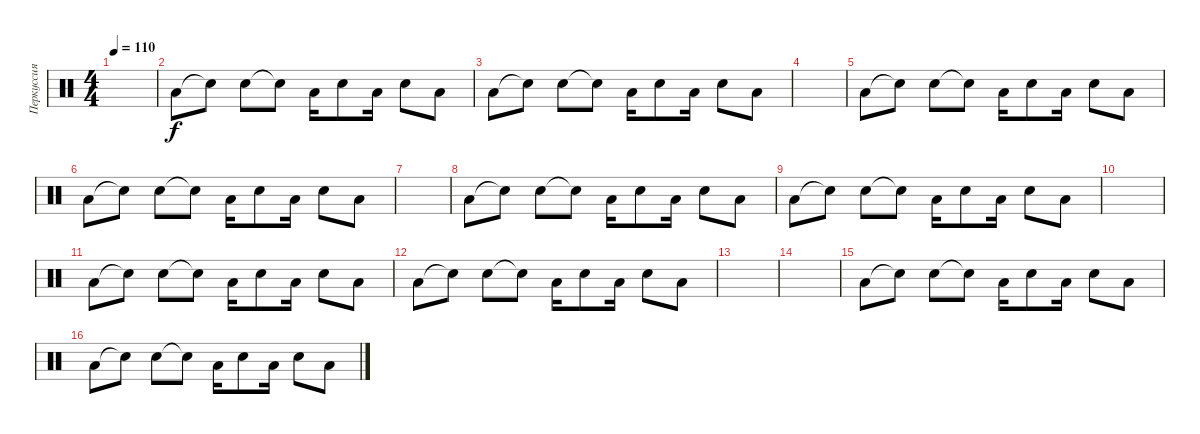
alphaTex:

\track ("Перкуссия" "Перкуссия") {instrument percussion}
\staff {score}
\articulation defaults
\ts (4 4)
\tempo 110
\clef neutral
\ks c
|
"Low Floor Tom (hit)".8 "Snare (hit)"{t}.8 "Electric Snare (hit)".8 "Snare (hit)"{t}.8 "Low Floor Tom (hit)".16 "Electric Snare (hit)".8 "Low Floor Tom (hit)".16 "Electric Snare (hit)".8 "Low Floor Tom (hit)".8 |
"Low Floor Tom (hit)".8 "Snare (hit)"{t}.8 "Electric Snare (hit)".8 "Snare (hit)"{t}.8 "Low Floor Tom (hit)".16 "Electric Snare (hit)".8 "Low Floor Tom (hit)".16 "Electric Snare (hit)".8 "Low Floor Tom (hit)".8 |
|
"Low Floor Tom (hit)".8 "Snare (hit)"{t}.8 "Electric Snare (hit)".8 "Snare (hit)"{t}.8 "Low Floor Tom (hit)".16 "Electric Snare (hit)".8 "Low Floor Tom (hit)".16 "Electric Snare (hit)".8 "Low Floor Tom (hit)".8 |
"Low Floor Tom (hit)".8 "Snare (hit)"{t}.8 "Electric Snare (hit)".8 "Snare (hit)"{t}.8 "Low Floor Tom (hit)".16 "Electric Snare (hit)".8 "Low Floor Tom (hit)".16 "Electric Snare (hit)".8 "Low Floor Tom (hit)".8 |
|
"Low Floor Tom (hit)".8 "Snare (hit)"{t}.8 "Electric Snare (hit)".8 "Snare (hit)"{t}.8 "Low Floor Tom (hit)".16 "Electric Snare (hit)".8 "Low Floor Tom (hit)".16 "Electric Snare (hit)".8 "Low Floor Tom (hit)".8 |
"Low Floor Tom (hit)".8 "Snare (hit)"{t}.8 "Electric Snare (hit)".8 "Snare (hit)"{t}.8 "Low Floor Tom (hit)".16 "Electric Snare (hit)".8 "Low Floor Tom (hit)".16 "Electric Snare (hit)".8 "Low Floor Tom (hit)".8 |
|
"Low Floor Tom (hit)".8 "Snare (hit)"{t}.8 "Electric Snare (hit)".8 "Snare (hit)"{t}.8 "Low Floor Tom (hit)".16 "Electric Snare (hit)".8 "Low Floor Tom (hit)".16 "Electric Snare (hit)".8 "Low Floor Tom (hit)".8 |
"Low Floor Tom (hit)".8 "Snare (hit)"{t}.8 "Electric Snare (hit)".8 "Snare (hit)"{t}.8 "Low Floor Tom (hit)".16 "Electric Snare (hit)".8 "Low Floor Tom (hit)".16 "Electric Snare (hit)".8 "Low Floor Tom (hit)".8 |
|
|
"Low Floor Tom (hit)".8 "Snare (hit)"{t}.8 "Electric Snare (hit)".8 "Snare (hit)"{t}.8 "Low Floor Tom (hit)".16 "Electric Snare (hit)".8 "Low Floor Tom (hit)".16 "Electric Snare (hit)".8 "Low Floor Tom (hit)".8 |
"Low Floor Tom (hit)".8 "Snare (hit)"{t}.8 "Electric Snare (hit)".8 "Snare (hit)"{t}.8 "Low Floor Tom (hit)".16 "Electric Snare (hit)".8 "Low Floor Tom (hit)".16 "Electric Snare (hit)".8 "Low Floor Tom (hit)".8
